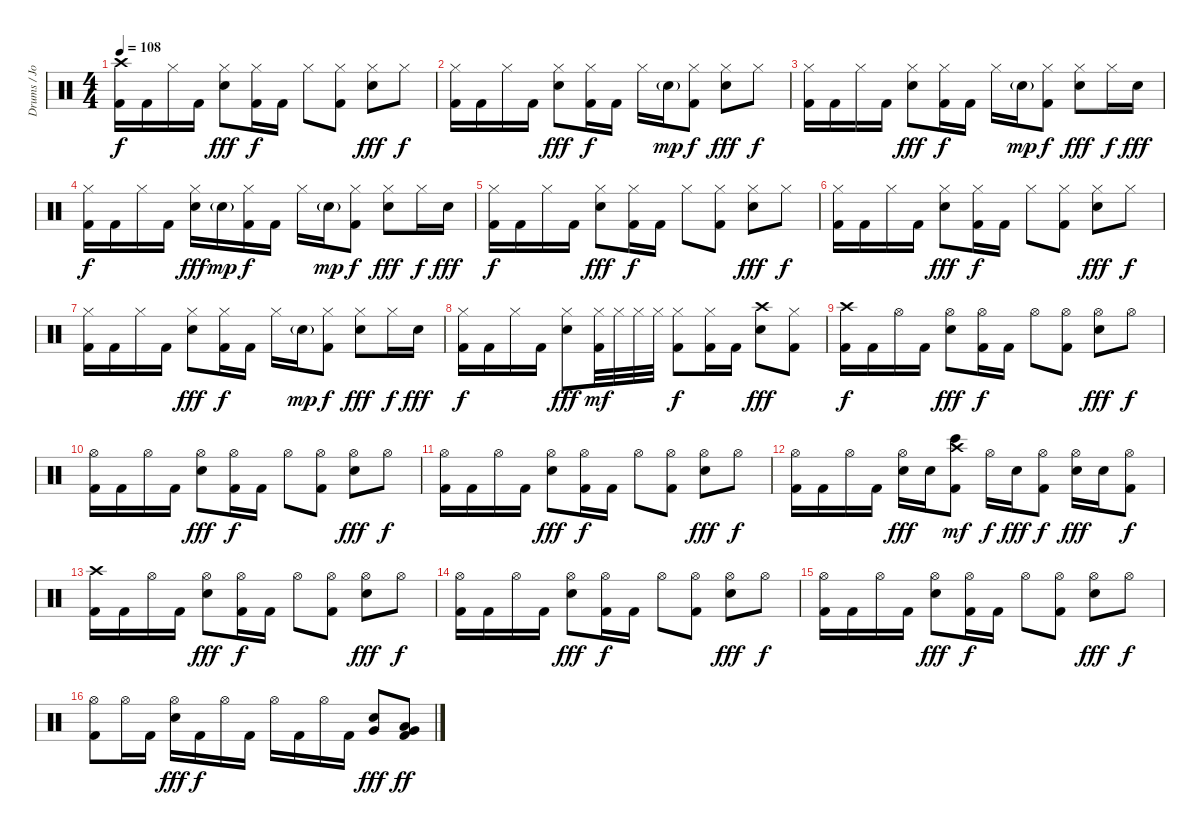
\track ("Drums / Jon Wysocki" "Drums / Jo") {instrument percussion}
\staff {score}
\articulation defaults
\ts (4 4)
\tempo 108
\clef neutral
\ks c
("Crash high (hit)" "Kick (hit) 2").16{dy f} "Kick (hit) 2".16 "Hi-Hat (closed)".16 "Kick (hit) 2".16 ("Hi-Hat (closed)" "Electric Snare (hit)").8{dy fff} ("Hi-Hat (closed)" "Kick (hit) 2").16{dy f} "Kick (hit) 2".16 "Hi-Hat (closed)".8 ("Hi-Hat (closed)" "Kick (hit) 2").8 ("Hi-Hat (closed)" "Electric Snare (hit)").8{dy fff} "Hi-Hat (closed)".8{dy f} |
("Hi-Hat (closed)" "Kick (hit) 2").16 "Kick (hit) 2".16 "Hi-Hat (closed)".16 "Kick (hit) 2".16 ("Hi-Hat (closed)" "Electric Snare (hit)").8{dy fff} ("Hi-Hat (closed)" "Kick (hit) 2").16{dy f} "Kick (hit) 2".16 "Hi-Hat (closed)".16 "Electric Snare (hit)"{g}.16{dy mp} ("Hi-Hat (closed)" "Kick (hit) 2").8{dy f} ("Hi-Hat (closed)" "Electric Snare (hit)").8{dy fff} "Hi-Hat (closed)".8{dy f} |
("Hi-Hat (closed)" "Kick (hit) 2").16 "Kick (hit) 2".16 "Hi-Hat (closed)".16 "Kick (hit) 2".16 ("Hi-Hat (closed)" "Electric Snare (hit)").8{dy fff} ("Hi-Hat (closed)" "Kick (hit) 2").16{dy f} "Kick (hit) 2".16 "Hi-Hat (closed)".16 "Electric Snare (hit)"{g}.16{dy mp} ("Hi-Hat (closed)" "Kick (hit) 2").8{dy f} ("Hi-Hat (closed)" "Electric Snare (hit)").8{dy fff} "Hi-Hat (closed)".16{dy f} "Electric Snare (hit)".16{dy fff} |
("Hi-Hat (closed)" "Kick (hit) 2").16{dy f} "Kick (hit) 2".16 "Hi-Hat (closed)".16 "Kick (hit) 2".16 ("Hi-Hat (closed)" "Electric Snare (hit)").16{dy fff} "Electric Snare (hit)"{g}.16{dy mp} ("Hi-Hat (closed)" "Kick (hit) 2").16{dy f} "Kick (hit) 2".16 "Hi-Hat (closed)".16 "Electric Snare (hit)"{g}.16{dy mp} ("Hi-Hat (closed)" "Kick (hit) 2").8{dy f} ("Hi-Hat (closed)" "Electric Snare (hit)").8{dy fff} "Hi-Hat (closed)".16{dy f} "Electric Snare (hit)".16{dy fff} |
("Hi-Hat (closed)" "Kick (hit) 2").16{dy f} "Kick (hit) 2".16 "Hi-Hat (closed)".16 "Kick (hit) 2".16 ("Hi-Hat (closed)" "Electric Snare (hit)").8{dy fff} ("Hi-Hat (closed)" "Kick (hit) 2").16{dy f} "Kick (hit) 2".16 "Hi-Hat (closed)".8 ("Hi-Hat (closed)" "Kick (hit) 2").8 ("Hi-Hat (closed)" "Electric Snare (hit)").8{dy fff} "Hi-Hat (closed)".8{dy f} |
("Hi-Hat (closed)" "Kick (hit) 2").16 "Kick (hit) 2".16 "Hi-Hat (closed)".16 "Kick (hit) 2".16 ("Hi-Hat (closed)" "Electric Snare (hit)").8{dy fff} ("Hi-Hat (closed)" "Kick (hit) 2").16{dy f} "Kick (hit) 2".16 "Hi-Hat (closed)".8 ("Hi-Hat (closed)" "Kick (hit) 2").8 ("Hi-Hat (closed)" "Electric Snare (hit)").8{dy fff} "Hi-Hat (closed)".8{dy f} |
("Hi-Hat (closed)" "Kick (hit) 2").16 "Kick (hit) 2".16 "Hi-Hat (closed)".16 "Kick (hit) 2".16 ("Hi-Hat (closed)" "Electric Snare (hit)").8{dy fff} ("Hi-Hat (closed)" "Kick (hit) 2").16{dy f} "Kick (hit) 2".16 "Hi-Hat (closed)".16 "Electric Snare (hit)"{g}.16{dy mp} ("Hi-Hat (closed)" "Kick (hit) 2").8{dy f} ("Hi-Hat (closed)" "Electric Snare (hit)").8{dy fff} "Hi-Hat (closed)".16{dy f} "Electric Snare (hit)".16{dy fff} |
("Hi-Hat (closed)" "Kick (hit) 2").16{dy f} "Kick (hit) 2".16 "Hi-Hat (closed)".16 "Kick (hit) 2".16 ("Hi-Hat (closed)" "Electric Snare (hit)").8{dy fff} ("Hi-Hat (closed)" "Kick (hit) 2").32{dy mf} "Hi-Hat (closed)".32 "Hi-Hat (closed)".32 "Hi-Hat (closed)".32 ("Hi-Hat (closed)" "Kick (hit) 2").8{dy f} ("Hi-Hat (closed)" "Kick (hit) 2").16 "Kick (hit) 2".16 ("Crash high (hit)" "Electric Snare (hit)").8{dy fff} ("Hi-Hat (closed)" "Kick (hit) 2").8 |
("Crash high (hit)" "Kick (hit) 2").16{dy f} "Kick (hit) 2".16 "Hi-Hat (open)".16 "Kick (hit) 2".16 ("Hi-Hat (open)" "Electric Snare (hit)").8{dy fff} ("Hi-Hat (open)" "Kick (hit) 2").16{dy f} "Kick (hit) 2".16 "Hi-Hat (open)".8 ("Hi-Hat (open)" "Kick (hit) 2").8 ("Hi-Hat (open)" "Electric Snare (hit)").8{dy fff} "Hi-Hat (open)".8{dy f} |
("Hi-Hat (open)" "Kick (hit) 2").16 "Kick (hit) 2".16 "Hi-Hat (open)".16 "Kick (hit) 2".16 ("Hi-Hat (open)" "Electric Snare (hit)").8{dy fff} ("Hi-Hat (open)" "Kick (hit) 2").16{dy f} "Kick (hit) 2".16 "Hi-Hat (open)".8 ("Hi-Hat (open)" "Kick (hit) 2").8 ("Hi-Hat (open)" "Electric Snare (hit)").8{dy fff} "Hi-Hat (open)".8{dy f} |
("Hi-Hat (open)" "Kick (hit) 2").16 "Kick (hit) 2".16 "Hi-Hat (open)".16 "Kick (hit) 2".16 ("Hi-Hat (open)" "Electric Snare (hit)").8{dy fff} ("Hi-Hat (open)" "Kick (hit) 2").16{dy f} "Kick (hit) 2".16 "Hi-Hat (open)".8 ("Hi-Hat (open)" "Kick (hit) 2").8 ("Hi-Hat (open)" "Electric Snare (hit)").8{dy fff} "Hi-Hat (open)".8{dy f} |
("Hi-Hat (open)" "Kick (hit) 2").16 "Kick (hit) 2".16 "Hi-Hat (open)".16 "Kick (hit) 2".16 ("Hi-Hat (open)" "Electric Snare (hit)").16{dy fff} "Electric Snare (hit)".16 ("Crash high (hit)" "Bongo High (hit)" "Kick (hit) 2").8{dy mf} "Hi-Hat (open)".16{dy f} "Electric Snare (hit)".16{dy fff} ("Hi-Hat (open)" "Kick (hit) 2").8{dy f} ("Hi-Hat (open)" "Electric Snare (hit)").16{dy fff} "Electric Snare (hit)".16 ("Hi-Hat (open)" "Kick (hit) 2").8{dy f} |
("Crash high (hit)" "Kick (hit) 2").16 "Kick (hit) 2".16 "Hi-Hat (open)".16 "Kick (hit) 2".16 ("Hi-Hat (open)" "Electric Snare (hit)").8{dy fff} ("Hi-Hat (open)" "Kick (hit) 2").16{dy f} "Kick (hit) 2".16 "Hi-Hat (open)".8 ("Hi-Hat (open)" "Kick (hit) 2").8 ("Hi-Hat (open)" "Electric Snare (hit)").8{dy fff} "Hi-Hat (open)".8{dy f} |
("Hi-Hat (open)" "Kick (hit) 2").16 "Kick (hit) 2".16 "Hi-Hat (open)".16 "Kick (hit) 2".16 ("Hi-Hat (open)" "Electric Snare (hit)").8{dy fff} ("Hi-Hat (open)" "Kick (hit) 2").16{dy f} "Kick (hit) 2".16 "Hi-Hat (open)".8 ("Hi-Hat (open)" "Kick (hit) 2").8 ("Hi-Hat (open)" "Electric Snare (hit)").8{dy fff} "Hi-Hat (open)".8{dy f} |
("Hi-Hat (open)" "Kick (hit) 2").16 "Kick (hit) 2".16 "Hi-Hat (open)".16 "Kick (hit) 2".16 ("Hi-Hat (open)" "Electric Snare (hit)").8{dy fff} ("Hi-Hat (open)" "Kick (hit) 2").16{dy f} "Kick (hit) 2".16 "Hi-Hat (open)".8 ("Hi-Hat (open)" "Kick (hit) 2").8 ("Hi-Hat (open)" "Electric Snare (hit)").8{dy fff} "Hi-Hat (open)".8{dy f} |
("Hi-Hat (open)" "Kick (hit) 2").8 "Hi-Hat (open)".16 "Kick (hit) 2".16 ("Hi-Hat (open)" "Electric Snare (hit)").16{dy fff} "Kick (hit) 2".16{dy f} "Hi-Hat (open)".16 "Kick (hit) 2".16 "Hi-Hat (open)".16 "Kick (hit) 2".16 "Hi-Hat (open)".16 "Kick (hit) 2".16 ("Electric Snare (hit)" "Very Low Tom (hit)").8{dy fff} ("Low Tom (hit)" "Very Low Tom (hit)" "Kick (hit) 2").8{dy ff}
